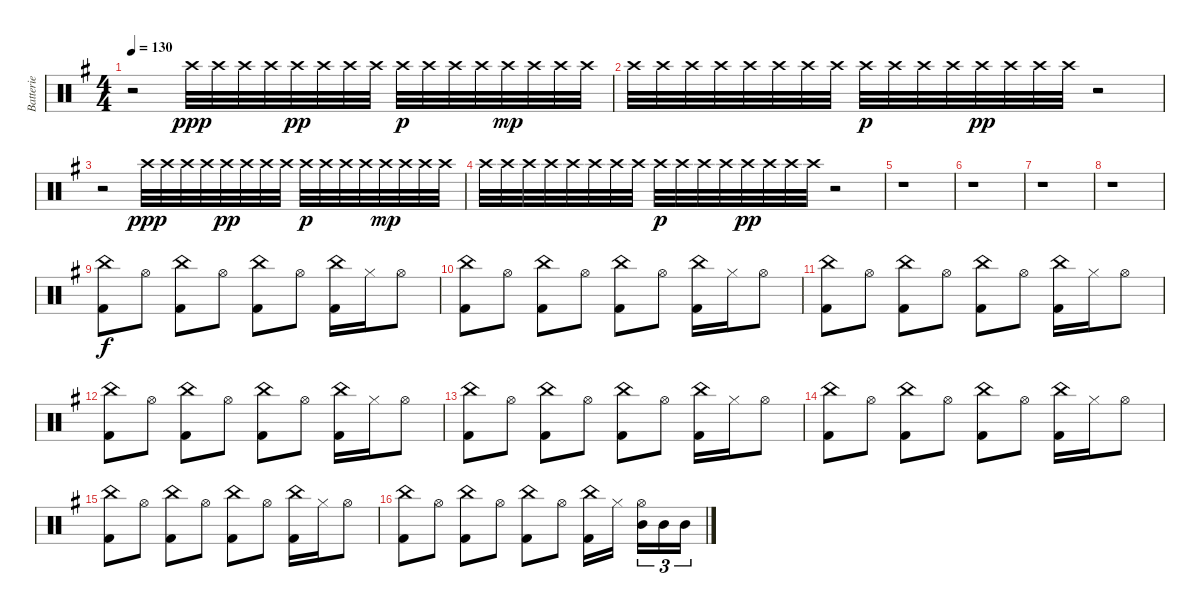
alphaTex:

\track ("Batterie" "Batterie") {instrument percussion}
\staff {score}
\articulation defaults
\ts (4 4)
\tempo 130
\clef neutral
\ks g
r.2{dy ppp} "Crash high (hit)".32 "Crash high (hit)".32 "Crash high (hit)".32 "Crash high (hit)".32 "Crash high (hit)".32{dy pp} "Crash high (hit)".32 "Crash high (hit)".32 "Crash high (hit)".32 "Crash high (hit)".32{dy p} "Crash high (hit)".32 "Crash high (hit)".32 "Crash high (hit)".32 "Crash high (hit)".32{dy mp} "Crash high (hit)".32 "Crash high (hit)".32 "Crash high (hit)".32 |
"Crash high (hit)".32 "Crash high (hit)".32 "Crash high (hit)".32 "Crash high (hit)".32 "Crash high (hit)".32 "Crash high (hit)".32 "Crash high (hit)".32 "Crash high (hit)".32 "Crash high (hit)".32{dy p} "Crash high (hit)".32 "Crash high (hit)".32 "Crash high (hit)".32 "Crash high (hit)".32{dy pp} "Crash high (hit)".32 "Crash high (hit)".32 "Crash high (hit)".32 r.2 |
r.2 "Crash high (hit)".32{dy ppp} "Crash high (hit)".32 "Crash high (hit)".32 "Crash high (hit)".32 "Crash high (hit)".32{dy pp} "Crash high (hit)".32 "Crash high (hit)".32 "Crash high (hit)".32 "Crash high (hit)".32{dy p} "Crash high (hit)".32 "Crash high (hit)".32 "Crash high (hit)".32 "Crash high (hit)".32{dy mp} "Crash high (hit)".32 "Crash high (hit)".32 "Crash high (hit)".32 |
"Crash high (hit)".32 "Crash high (hit)".32 "Crash high (hit)".32 "Crash high (hit)".32 "Crash high (hit)".32 "Crash high (hit)".32 "Crash high (hit)".32 "Crash high (hit)".32 "Crash high (hit)".32{dy p} "Crash high (hit)".32 "Crash high (hit)".32 "Crash high (hit)".32 "Crash high (hit)".32{dy pp} "Crash high (hit)".32 "Crash high (hit)".32 "Crash high (hit)".32 r.2 |
r.1 |
r.1 |
r.1 |
r.1 |
("China (hit)" "Kick (hit) 2").8{dy f} "Hi-Hat (open)".8 ("China (hit)" "Kick (hit) 2").8 "Hi-Hat (open)".8 ("China (hit)" "Kick (hit) 2").8 "Hi-Hat (open)".8 ("China (hit)" "Kick (hit) 2").16 "Hi-Hat (closed)".16 "Hi-Hat (open)".8 |
("China (hit)" "Kick (hit) 2").8 "Hi-Hat (open)".8 ("China (hit)" "Kick (hit) 2").8 "Hi-Hat (open)".8 ("China (hit)" "Kick (hit) 2").8 "Hi-Hat (open)".8 ("China (hit)" "Kick (hit) 2").16 "Hi-Hat (closed)".16 "Hi-Hat (open)".8 |
("China (hit)" "Kick (hit) 2").8 "Hi-Hat (open)".8 ("China (hit)" "Kick (hit) 2").8 "Hi-Hat (open)".8 ("China (hit)" "Kick (hit) 2").8 "Hi-Hat (open)".8 ("China (hit)" "Kick (hit) 2").16 "Hi-Hat (closed)".16 "Hi-Hat (open)".8 |
("China (hit)" "Kick (hit) 2").8 "Hi-Hat (open)".8 ("China (hit)" "Kick (hit) 2").8 "Hi-Hat (open)".8 ("China (hit)" "Kick (hit) 2").8 "Hi-Hat (open)".8 ("China (hit)" "Kick (hit) 2").16 "Hi-Hat (closed)".16 "Hi-Hat (open)".8 |
("China (hit)" "Kick (hit) 2").8 "Hi-Hat (open)".8 ("China (hit)" "Kick (hit) 2").8 "Hi-Hat (open)".8 ("China (hit)" "Kick (hit) 2").8 "Hi-Hat (open)".8 ("China (hit)" "Kick (hit) 2").16 "Hi-Hat (closed)".16 "Hi-Hat (open)".8 |
("China (hit)" "Kick (hit) 2").8 "Hi-Hat (open)".8 ("China (hit)" "Kick (hit) 2").8 "Hi-Hat (open)".8 ("China (hit)" "Kick (hit) 2").8 "Hi-Hat (open)".8 ("China (hit)" "Kick (hit) 2").16 "Hi-Hat (closed)".16 "Hi-Hat (open)".8 |
("China (hit)" "Kick (hit) 2").8 "Hi-Hat (open)".8 ("China (hit)" "Kick (hit) 2").8 "Hi-Hat (open)".8 ("China (hit)" "Kick (hit) 2").8 "Hi-Hat (open)".8 ("China (hit)" "Kick (hit) 2").16 "Hi-Hat (closed)".16 "Hi-Hat (open)".8 |
("China (hit)" "Kick (hit) 2").8 "Hi-Hat (open)".8 ("China (hit)" "Kick (hit) 2").8 "Hi-Hat (open)".8 ("China (hit)" "Kick (hit) 2").8 "Hi-Hat (open)".8 ("China (hit)" "Kick (hit) 2").16 "Hi-Hat (closed)".16 ("Hi-Hat (open)" "Mid Tom (hit)").16{tu (3 2)} "Mid Tom (hit)".16{tu (3 2)} "Mid Tom (hit)".16{tu (3 2)}
